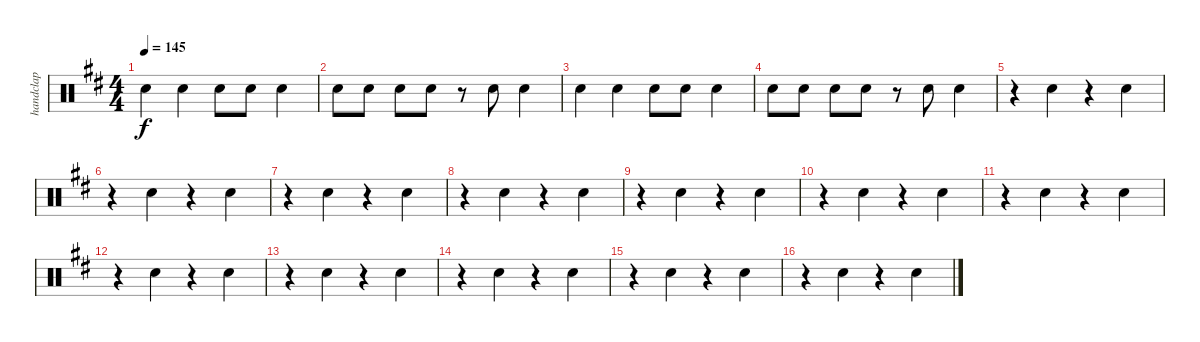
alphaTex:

\track ("handclap" "handclap") {instrument percussion}
\staff {score}
\articulation defaults
\ts (4 4)
\tempo 145
\clef neutral
\ks d "Hand Clap (hit)".4{dy f} "Hand Clap (hit)".4 "Hand Clap (hit)".8 "Hand Clap (hit)".8 "Hand Clap (hit)".4
|
"Hand Clap (hit)".8 "Hand Clap (hit)".8 "Hand Clap (hit)".8 "Hand Clap (hit)".8 r.8 "Hand Clap (hit)".8 "Hand Clap (hit)".4 |
"Hand Clap (hit)".4 "Hand Clap (hit)".4 "Hand Clap (hit)".8 "Hand Clap (hit)".8 "Hand Clap (hit)".4 |
"Hand Clap (hit)".8 "Hand Clap (hit)".8 "Hand Clap (hit)".8 "Hand Clap (hit)".8 r.8 "Hand Clap (hit)".8 "Hand Clap (hit)".4 |
r.4 "Hand Clap (hit)".4 r.4 "Hand Clap (hit)".4 |
r.4 "Hand Clap (hit)".4 r.4 "Hand Clap (hit)".4 |
r.4 "Hand Clap (hit)".4 r.4 "Hand Clap (hit)".4 |
r.4 "Hand Clap (hit)".4 r.4 "Hand Clap (hit)".4 |
r.4 "Hand Clap (hit)".4 r.4 "Hand Clap (hit)".4 |
r.4 "Hand Clap (hit)".4 r.4 "Hand Clap (hit)".4 |
r.4 "Hand Clap (hit)".4 r.4 "Hand Clap (hit)".4 |
r.4 "Hand Clap (hit)".4 r.4 "Hand Clap (hit)".4 |
r.4 "Hand Clap (hit)".4 r.4 "Hand Clap (hit)".4 |
r.4 "Hand Clap (hit)".4 r.4 "Hand Clap (hit)".4 |
r.4 "Hand Clap (hit)".4 r.4 "Hand Clap (hit)".4 |
r.4 "Hand Clap (hit)".4 r.4 "Hand Clap (hit)".4
